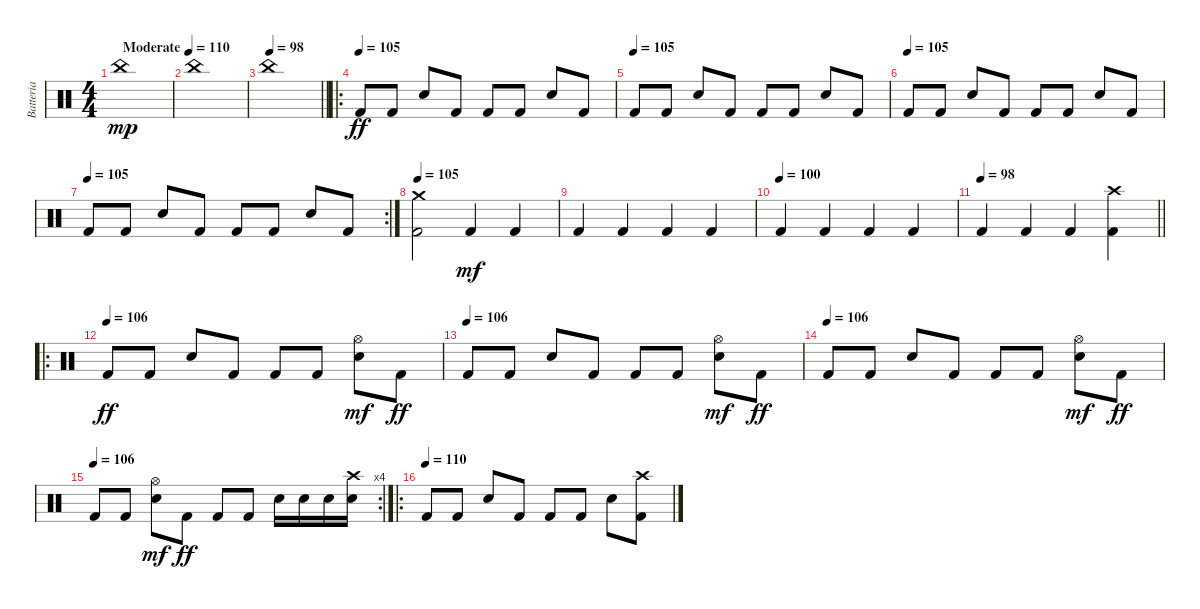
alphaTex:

\track ("Batteria" "Batteria") {instrument percussion}
\staff {score}
\articulation defaults
\ts (4 4)
\tempo (110 "Moderate")
\tempo 72
\tempo (110 "Moderate")
\clef neutral
\ks c "China (hit)".1{dy mp}
|
"China (hit)".1 |
\tempo 98
\barLineRight lightlight "China (hit)".1
|
\ro
\tempo (105)
"Kick (hit) 2".8{dy ff} "Kick (hit) 2".8 "Snare (hit) 2".8 "Kick (hit) 2".8 "Kick (hit) 2".8 "Kick (hit) 2".8 "Snare (hit) 2".8 "Kick (hit) 2".8 |
\tempo (105)
"Kick (hit) 2".8 "Kick (hit) 2".8 "Snare (hit) 2".8 "Kick (hit) 2".8 "Kick (hit) 2".8 "Kick (hit) 2".8 "Snare (hit) 2".8 "Kick (hit) 2".8 |
\tempo (105)
"Kick (hit) 2".8 "Kick (hit) 2".8 "Snare (hit) 2".8 "Kick (hit) 2".8 "Kick (hit) 2".8 "Kick (hit) 2".8 "Snare (hit) 2".8 "Kick (hit) 2".8 |
\rc 2
\tempo (105)
"Kick (hit) 2".8 "Kick (hit) 2".8 "Snare (hit) 2".8 "Kick (hit) 2".8 "Kick (hit) 2".8 "Kick (hit) 2".8 "Snare (hit) 2".8 "Kick (hit) 2".8 |
\tempo 105
("Kick (hit) 2" "Crash medium (hit)").2 "Kick (hit) 2".4{dy mf} "Kick (hit) 2".4 |
"Kick (hit) 2".4 "Kick (hit) 2".4 "Kick (hit) 2".4 "Kick (hit) 2".4 |
\tempo (100)
"Kick (hit) 2".4 "Kick (hit) 2".4 "Kick (hit) 2".4 "Kick (hit) 2".4 |
\tempo 98
\barLineRight lightlight "Kick (hit) 2".4 "Kick (hit) 2".4 "Kick (hit) 2".4
("Crash high (hit)" "Kick (hit) 2").4 |
\ro
\tempo (106)
"Kick (hit) 2".8{dy ff} "Kick (hit) 2".8 "Snare (hit) 2".8 "Kick (hit) 2".8 "Kick (hit) 2".8 "Kick (hit) 2".8 ("Snare (hit) 2" "Hi-Hat (open)").8{dy mf} "Kick (hit) 2".8{dy ff} |
\tempo (106)
"Kick (hit) 2".8 "Kick (hit) 2".8 "Snare (hit) 2".8 "Kick (hit) 2".8 "Kick (hit) 2".8 "Kick (hit) 2".8 ("Snare (hit) 2" "Hi-Hat (open)").8{dy mf} "Kick (hit) 2".8{dy ff} |
\tempo (106)
"Kick (hit) 2".8 "Kick (hit) 2".8 "Snare (hit) 2".8 "Kick (hit) 2".8 "Kick (hit) 2".8 "Kick (hit) 2".8 ("Snare (hit) 2" "Hi-Hat (open)").8{dy mf} "Kick (hit) 2".8{dy ff} |
\rc 4
\tempo (106)
"Kick (hit) 2".8 "Kick (hit) 2".8 ("Snare (hit) 2" "Hi-Hat (open)").8{dy mf} "Kick (hit) 2".8{dy ff} "Kick (hit) 2".8 "Kick (hit) 2".8 "Snare (hit) 2".16 "Snare (hit) 2".16 "Snare (hit) 2".16 ("Snare (hit) 2" "Crash high (hit)").16 |
\ro
\tempo (110)
"Kick (hit) 2".8 "Kick (hit) 2".8 "Snare (hit) 2".8 "Kick (hit) 2".8 "Kick (hit) 2".8 "Kick (hit) 2".8 "Snare (hit) 2".8 ("Crash high (hit)" "Kick (hit) 2").8
